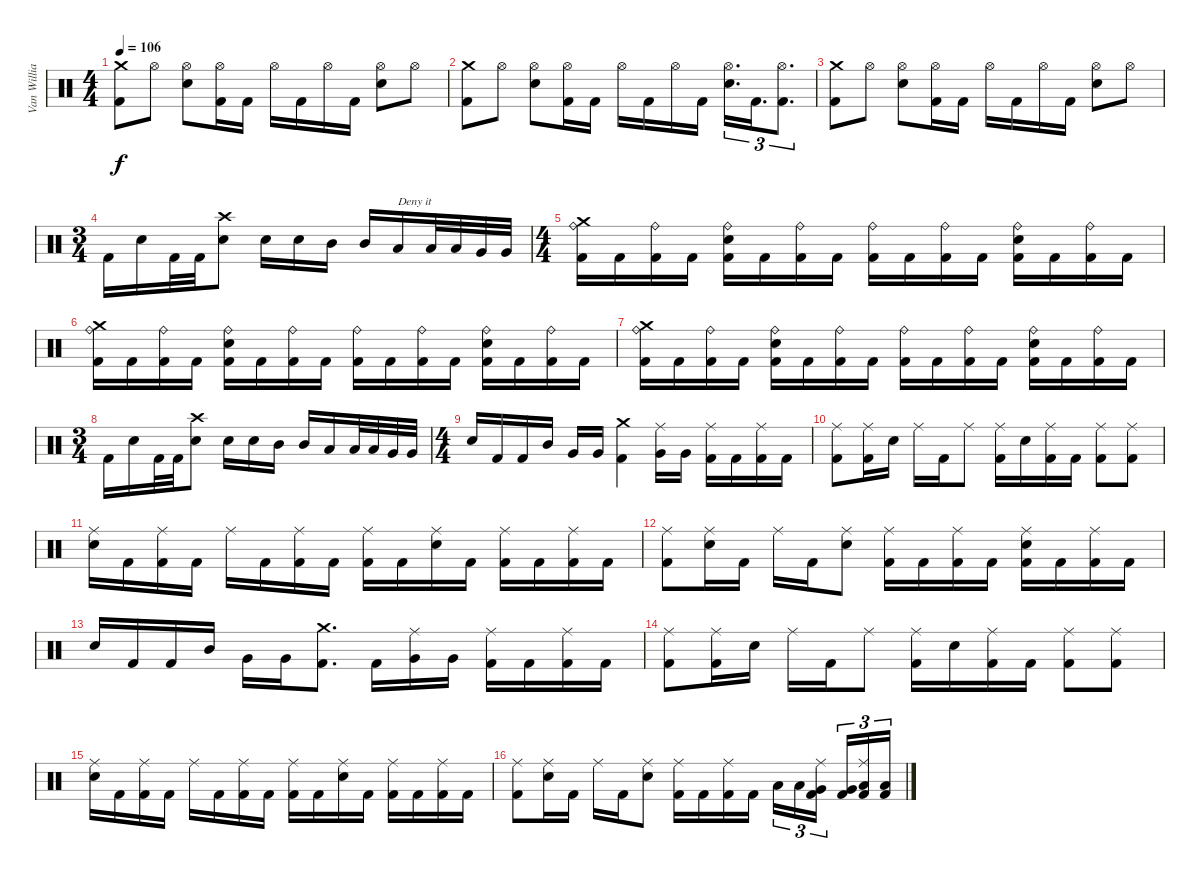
\track ("Van Williams" "Van Willia") {instrument percussion}
\staff {score}
\articulation defaults
\ts (4 4)
\tempo 106
\clef neutral
\ks c
("Crash medium (hit)" "Kick (hit) 2").8{dy f} "Hi-Hat (open)".8 ("Electric Snare (hit)" "Hi-Hat (open)").8 ("Kick (hit) 2" "Hi-Hat (open)").16 "Kick (hit) 2".16 "Hi-Hat (open)".16 "Kick (hit) 2".16 "Hi-Hat (open)".16 "Kick (hit) 2".16 ("Electric Snare (hit)" "Hi-Hat (open)").8 "Hi-Hat (open)".8 |
("Crash medium (hit)" "Kick (hit) 2").8 "Hi-Hat (open)".8 ("Electric Snare (hit)" "Hi-Hat (open)").8 ("Kick (hit) 2" "Hi-Hat (open)").16 "Kick (hit) 2".16 "Hi-Hat (open)".16 "Kick (hit) 2".16 "Hi-Hat (open)".16 "Kick (hit) 2".16 ("Electric Snare (hit)" "Hi-Hat (open)").16{d tu (3 2)} "Kick (hit) 2".16{d tu (3 2)} ("Kick (hit) 2" "Hi-Hat (open)").8{d tu (3 2)} |
("Crash medium (hit)" "Kick (hit) 2").8 "Hi-Hat (open)".8 ("Electric Snare (hit)" "Hi-Hat (open)").8 ("Kick (hit) 2" "Hi-Hat (open)").16 "Kick (hit) 2".16 "Hi-Hat (open)".16 "Kick (hit) 2".16 "Hi-Hat (open)".16 "Kick (hit) 2".16 ("Electric Snare (hit)" "Hi-Hat (open)").8 "Hi-Hat (open)".8 |
\ts (3 4)
"Kick (hit) 2".16 "Electric Snare (hit)".16 "Kick (hit) 2".32 "Kick (hit) 2".32 ("Crash high (hit)" "Electric Snare (hit)").8 "Electric Snare (hit)".16 "Electric Snare (hit)".16 "Mid Tom (hit)".16 "Mid Tom (hit)".16 "Low Tom (hit)".16{txt "Deny it"} "Low Tom (hit)".32 "Low Tom (hit)".32 "Very Low Tom (hit)".32 "Very Low Tom (hit)".32 |
\ts (4 4)
("Crash medium (hit)" "Kick (hit) 2" "Ride (bell)").16 "Kick (hit) 2".16 ("Kick (hit) 2" "Ride (bell)").16 "Kick (hit) 2".16 ("Electric Snare (hit)" "Kick (hit) 2" "Ride (bell)").16 "Kick (hit) 2".16 ("Kick (hit) 2" "Ride (bell)").16 "Kick (hit) 2".16 ("Kick (hit) 2" "Ride (bell)").16 "Kick (hit) 2".16 ("Kick (hit) 2" "Ride (bell)").16 "Kick (hit) 2".16 ("Electric Snare (hit)" "Kick (hit) 2" "Ride (bell)").16 "Kick (hit) 2".16 ("Kick (hit) 2" "Ride (bell)").16 "Kick (hit) 2".16 |
("Crash medium (hit)" "Kick (hit) 2" "Ride (bell)").16 "Kick (hit) 2".16 ("Kick (hit) 2" "Ride (bell)").16 "Kick (hit) 2".16 ("Electric Snare (hit)" "Kick (hit) 2" "Ride (bell)").16 "Kick (hit) 2".16 ("Kick (hit) 2" "Ride (bell)").16 "Kick (hit) 2".16 ("Kick (hit) 2" "Ride (bell)").16 "Kick (hit) 2".16 ("Kick (hit) 2" "Ride (bell)").16 "Kick (hit) 2".16 ("Electric Snare (hit)" "Kick (hit) 2" "Ride (bell)").16 "Kick (hit) 2".16 ("Kick (hit) 2" "Ride (bell)").16 "Kick (hit) 2".16 |
("Crash medium (hit)" "Kick (hit) 2" "Ride (bell)").16 "Kick (hit) 2".16 ("Kick (hit) 2" "Ride (bell)").16 "Kick (hit) 2".16 ("Electric Snare (hit)" "Kick (hit) 2" "Ride (bell)").16 "Kick (hit) 2".16 ("Kick (hit) 2" "Ride (bell)").16 "Kick (hit) 2".16 ("Kick (hit) 2" "Ride (bell)").16 "Kick (hit) 2".16 ("Kick (hit) 2" "Ride (bell)").16 "Kick (hit) 2".16 ("Electric Snare (hit)" "Kick (hit) 2" "Ride (bell)").16 "Kick (hit) 2".16 ("Kick (hit) 2" "Ride (bell)").16 "Kick (hit) 2".16 |
\ts (3 4)
"Kick (hit) 2".16 "Electric Snare (hit)".16 "Kick (hit) 2".32 "Kick (hit) 2".32 ("Crash high (hit)" "Electric Snare (hit)").8 "Electric Snare (hit)".16 "Electric Snare (hit)".16 "Mid Tom (hit)".16 "Mid Tom (hit)".16 "Low Tom (hit)".16 "Low Tom (hit)".32 "Low Tom (hit)".32 "Very Low Tom (hit)".32 "Very Low Tom (hit)".32 |
\ts (4 4)
"Electric Snare (hit)".16 "Kick (hit) 2".16 "Kick (hit) 2".16 "Mid Tom (hit)".16 "Very Low Tom (hit)".16 "Very Low Tom (hit)".16 ("Kick (hit) 2" "Crash medium (hit)").4 ("Very Low Tom (hit)" "Ride (middle)").16 "Very Low Tom (hit)".16 ("Kick (hit) 2" "Ride (middle)").16 "Kick (hit) 2".16 ("Kick (hit) 2" "Ride (middle)").16 "Kick (hit) 2".16 |
("Kick (hit) 2" "Ride (middle)").8 ("Kick (hit) 2" "Ride (middle)").16 "Electric Snare (hit)".16 "Ride (middle)".16 "Kick (hit) 2".16 "Ride (middle)".8 ("Kick (hit) 2" "Ride (middle)").16 "Electric Snare (hit)".16 ("Kick (hit) 2" "Ride (middle)").16 "Kick (hit) 2".16 ("Kick (hit) 2" "Ride (middle)").8 ("Kick (hit) 2" "Ride (middle)").8 |
("Electric Snare (hit)" "Ride (middle)").16 "Kick (hit) 2".16 ("Kick (hit) 2" "Ride (middle)").16 "Kick (hit) 2".16 "Ride (middle)".16 "Kick (hit) 2".16 ("Kick (hit) 2" "Ride (middle)").16 "Kick (hit) 2".16 ("Kick (hit) 2" "Ride (middle)").16 "Kick (hit) 2".16 ("Electric Snare (hit)" "Ride (middle)").16 "Kick (hit) 2".16 ("Kick (hit) 2" "Ride (middle)").16 "Kick (hit) 2".16 ("Kick (hit) 2" "Ride (middle)").16 "Kick (hit) 2".16 |
("Kick (hit) 2" "Ride (middle)").8 ("Electric Snare (hit)" "Ride (middle)").16 "Kick (hit) 2".16 "Ride (middle)".16 "Kick (hit) 2".16 ("Electric Snare (hit)" "Ride (middle)").8 ("Kick (hit) 2" "Ride (middle)").16 "Kick (hit) 2".16 ("Kick (hit) 2" "Ride (middle)").16 "Kick (hit) 2".16 ("Kick (hit) 2" "Electric Snare (hit)" "Ride (middle)").16 "Kick (hit) 2".16 ("Kick (hit) 2" "Ride (middle)").16 "Kick (hit) 2".16 |
"Electric Snare (hit)".16 "Kick (hit) 2".16 "Kick (hit) 2".16 "Mid Tom (hit)".16 "Very Low Tom (hit)".16 "Very Low Tom (hit)".16 ("Kick (hit) 2" "Crash medium (hit)").8{d} "Kick (hit) 2".16 ("Very Low Tom (hit)" "Ride (middle)").16 "Very Low Tom (hit)".16 ("Kick (hit) 2" "Ride (middle)").16 "Kick (hit) 2".16 ("Kick (hit) 2" "Ride (middle)").16 "Kick (hit) 2".16 |
("Kick (hit) 2" "Ride (middle)").8 ("Kick (hit) 2" "Ride (middle)").16 "Electric Snare (hit)".16 "Ride (middle)".16 "Kick (hit) 2".16 "Ride (middle)".8 ("Kick (hit) 2" "Ride (middle)").16 "Electric Snare (hit)".16 ("Kick (hit) 2" "Ride (middle)").16 "Kick (hit) 2".16 ("Kick (hit) 2" "Ride (middle)").8 ("Kick (hit) 2" "Ride (middle)").8 |
("Electric Snare (hit)" "Ride (middle)").16 "Kick (hit) 2".16 ("Kick (hit) 2" "Ride (middle)").16 "Kick (hit) 2".16 "Ride (middle)".16 "Kick (hit) 2".16 ("Kick (hit) 2" "Ride (middle)").16 "Kick (hit) 2".16 ("Kick (hit) 2" "Ride (middle)").16 "Kick (hit) 2".16 ("Electric Snare (hit)" "Ride (middle)").16 "Kick (hit) 2".16 ("Kick (hit) 2" "Ride (middle)").16 "Kick (hit) 2".16 ("Kick (hit) 2" "Ride (middle)").16 "Kick (hit) 2".16 |
("Kick (hit) 2" "Ride (middle)").8 ("Electric Snare (hit)" "Ride (middle)").16 "Kick (hit) 2".16 "Ride (middle)".16 "Kick (hit) 2".16 ("Electric Snare (hit)" "Ride (middle)").8 ("Kick (hit) 2" "Ride (middle)").16 "Kick (hit) 2".16 ("Kick (hit) 2" "Ride (middle)").16 "Kick (hit) 2".16 "Low Tom (hit)".16{tu (3 2)} "Low Tom (hit)".16{tu (3 2)} ("Kick (hit) 2" "Very Low Tom (hit)" "Ride (middle)").16{tu (3 2)} ("Kick (hit) 2" "Very Low Tom (hit)").16{tu (3 2)} ("Kick (hit) 2" "Low Floor Tom (hit)" "Ride (middle)").16{tu (3 2)} ("Kick (hit) 2" "Low Floor Tom (hit)").16{tu (3 2)}
